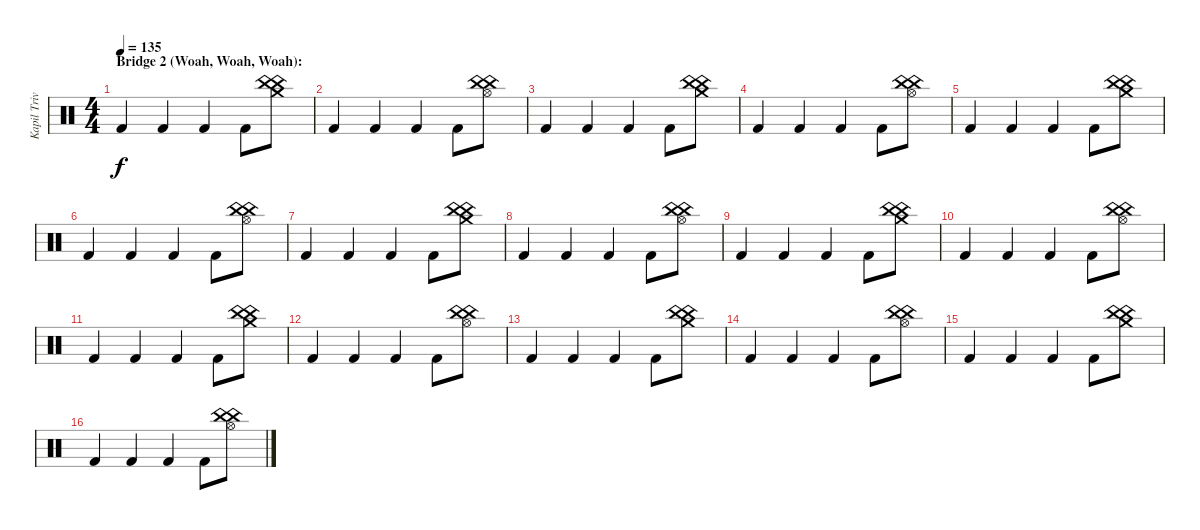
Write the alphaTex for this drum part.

\track ("Kapil Trivedi (Percussion)" "Kapil Triv") {instrument percussion}
\staff {score}
\articulation defaults
\ts (4 4)
\section ("" "Bridge 2 (Woah, Woah, Woah):")
\tempo 135
\clef neutral
\ks c "Kick (hit) 2".4{dy f} "Kick (hit) 2".4 "Kick (hit) 2".4 "Kick (hit) 2".8
("Crash medium (hit)" "China (hit)" "China (hit)").8 |
"Kick (hit) 2".4 "Kick (hit) 2".4 "Kick (hit) 2".4 "Kick (hit) 2".8 ("Hi-Hat (open)" "China (hit)" "China (hit)").8 |
"Kick (hit) 2".4 "Kick (hit) 2".4 "Kick (hit) 2".4 "Kick (hit) 2".8 ("Crash medium (hit)" "China (hit)" "China (hit)").8 |
"Kick (hit) 2".4 "Kick (hit) 2".4 "Kick (hit) 2".4 "Kick (hit) 2".8 ("Hi-Hat (open)" "China (hit)" "China (hit)").8 |
"Kick (hit) 2".4 "Kick (hit) 2".4 "Kick (hit) 2".4 "Kick (hit) 2".8 ("Crash medium (hit)" "China (hit)" "China (hit)").8 |
"Kick (hit) 2".4 "Kick (hit) 2".4 "Kick (hit) 2".4 "Kick (hit) 2".8 ("Hi-Hat (open)" "China (hit)" "China (hit)").8 |
"Kick (hit) 2".4 "Kick (hit) 2".4 "Kick (hit) 2".4 "Kick (hit) 2".8 ("Crash medium (hit)" "China (hit)" "China (hit)").8 |
"Kick (hit) 2".4 "Kick (hit) 2".4 "Kick (hit) 2".4 "Kick (hit) 2".8 ("Hi-Hat (open)" "China (hit)" "China (hit)").8 |
"Kick (hit) 2".4 "Kick (hit) 2".4 "Kick (hit) 2".4 "Kick (hit) 2".8 ("Crash medium (hit)" "China (hit)" "China (hit)").8 |
"Kick (hit) 2".4 "Kick (hit) 2".4 "Kick (hit) 2".4 "Kick (hit) 2".8 ("Hi-Hat (open)" "China (hit)" "China (hit)").8 |
"Kick (hit) 2".4 "Kick (hit) 2".4 "Kick (hit) 2".4 "Kick (hit) 2".8 ("Crash medium (hit)" "China (hit)" "China (hit)").8 |
"Kick (hit) 2".4 "Kick (hit) 2".4 "Kick (hit) 2".4 "Kick (hit) 2".8 ("Hi-Hat (open)" "China (hit)" "China (hit)").8 |
"Kick (hit) 2".4 "Kick (hit) 2".4 "Kick (hit) 2".4 "Kick (hit) 2".8 ("Crash medium (hit)" "China (hit)" "China (hit)").8 |
"Kick (hit) 2".4 "Kick (hit) 2".4 "Kick (hit) 2".4 "Kick (hit) 2".8 ("Hi-Hat (open)" "China (hit)" "China (hit)").8 |
"Kick (hit) 2".4 "Kick (hit) 2".4 "Kick (hit) 2".4 "Kick (hit) 2".8 ("Crash medium (hit)" "China (hit)" "China (hit)").8 |
"Kick (hit) 2".4 "Kick (hit) 2".4 "Kick (hit) 2".4 "Kick (hit) 2".8 ("Hi-Hat (open)" "China (hit)" "China (hit)").8
